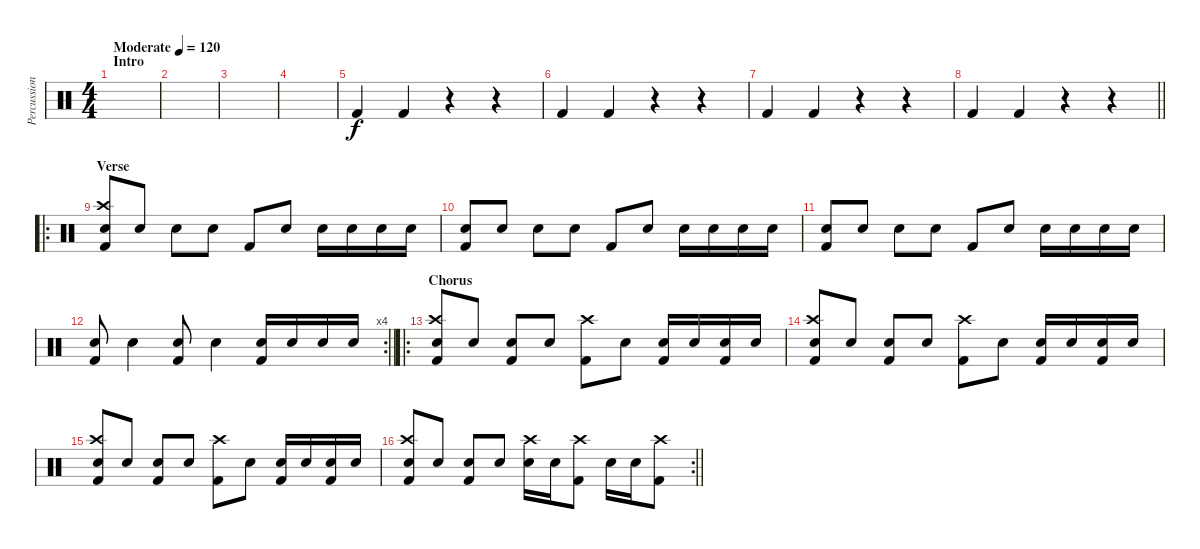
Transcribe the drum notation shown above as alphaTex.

\track ("Percussion" "Percussion") {instrument percussion}
\staff {score}
\articulation defaults
\ts (4 4)
\section ("" "Intro")
\tempo (120 "Moderate")
\clef neutral
\ks c
|
|
|
|
"Kick (hit) 2".4 "Kick (hit) 2".4 r.4 r.4 |
"Kick (hit) 2".4 "Kick (hit) 2".4 r.4 r.4 |
"Kick (hit) 2".4 "Kick (hit) 2".4 r.4 r.4 |
\barLineRight lightlight "Kick (hit) 2".4 "Kick (hit) 2".4
r.4 r.4 |
\ro
\section ("" "Verse")
("Crash high (hit)" "Snare (hit) 2" "Kick (hit) 2").8 "Snare (hit) 2".8 "Snare (hit) 2".8 "Snare (hit) 2".8 "Kick (hit) 2".8 "Snare (hit) 2".8 "Snare (hit) 2".16 "Snare (hit) 2".16 "Snare (hit) 2".16 "Snare (hit) 2".16 |
("Snare (hit) 2" "Kick (hit) 2").8 "Snare (hit) 2".8 "Snare (hit) 2".8 "Snare (hit) 2".8 "Kick (hit) 2".8 "Snare (hit) 2".8 "Snare (hit) 2".16 "Snare (hit) 2".16 "Snare (hit) 2".16 "Snare (hit) 2".16 |
("Snare (hit) 2" "Kick (hit) 2").8 "Snare (hit) 2".8 "Snare (hit) 2".8 "Snare (hit) 2".8 "Kick (hit) 2".8 "Snare (hit) 2".8 "Snare (hit) 2".16 "Snare (hit) 2".16 "Snare (hit) 2".16 "Snare (hit) 2".16 |
\rc 4
\barLineRight lightlight
("Snare (hit) 2" "Kick (hit) 2").8 "Snare (hit) 2".4 ("Snare (hit) 2" "Kick (hit) 2").8 "Snare (hit) 2".4 ("Snare (hit) 2" "Kick (hit) 2").16 "Snare (hit) 2".16 "Snare (hit) 2".16 "Snare (hit) 2".16 |
\ro
\section ("" "Chorus")
("Crash high (hit)" "Snare (hit) 2" "Kick (hit) 2").8 "Snare (hit) 2".8 ("Snare (hit) 2" "Kick (hit) 2").8 "Snare (hit) 2".8 ("Crash high (hit)" "Kick (hit) 2").8 "Snare (hit) 2".8 ("Snare (hit) 2" "Kick (hit) 2").16 "Snare (hit) 2".16 ("Snare (hit) 2" "Kick (hit) 2").16 "Snare (hit) 2".16 |
("Crash high (hit)" "Snare (hit) 2" "Kick (hit) 2").8 "Snare (hit) 2".8 ("Snare (hit) 2" "Kick (hit) 2").8 "Snare (hit) 2".8 ("Crash high (hit)" "Kick (hit) 2").8 "Snare (hit) 2".8 ("Snare (hit) 2" "Kick (hit) 2").16 "Snare (hit) 2".16 ("Snare (hit) 2" "Kick (hit) 2").16 "Snare (hit) 2".16 |
("Crash high (hit)" "Snare (hit) 2" "Kick (hit) 2").8 "Snare (hit) 2".8 ("Snare (hit) 2" "Kick (hit) 2").8 "Snare (hit) 2".8 ("Crash high (hit)" "Kick (hit) 2").8 "Snare (hit) 2".8 ("Snare (hit) 2" "Kick (hit) 2").16 "Snare (hit) 2".16 ("Snare (hit) 2" "Kick (hit) 2").16 "Snare (hit) 2".16 |
\rc 2
\barLineRight lightlight
("Crash high (hit)" "Snare (hit) 2" "Kick (hit) 2").8 "Snare (hit) 2".8 ("Snare (hit) 2" "Kick (hit) 2").8 "Snare (hit) 2".8 ("Crash high (hit)" "Snare (hit) 2").16 "Snare (hit) 2".16 ("Crash high (hit)" "Kick (hit) 2").8 "Snare (hit) 2".16 "Snare (hit) 2".16 ("Crash high (hit)" "Kick (hit) 2").8
